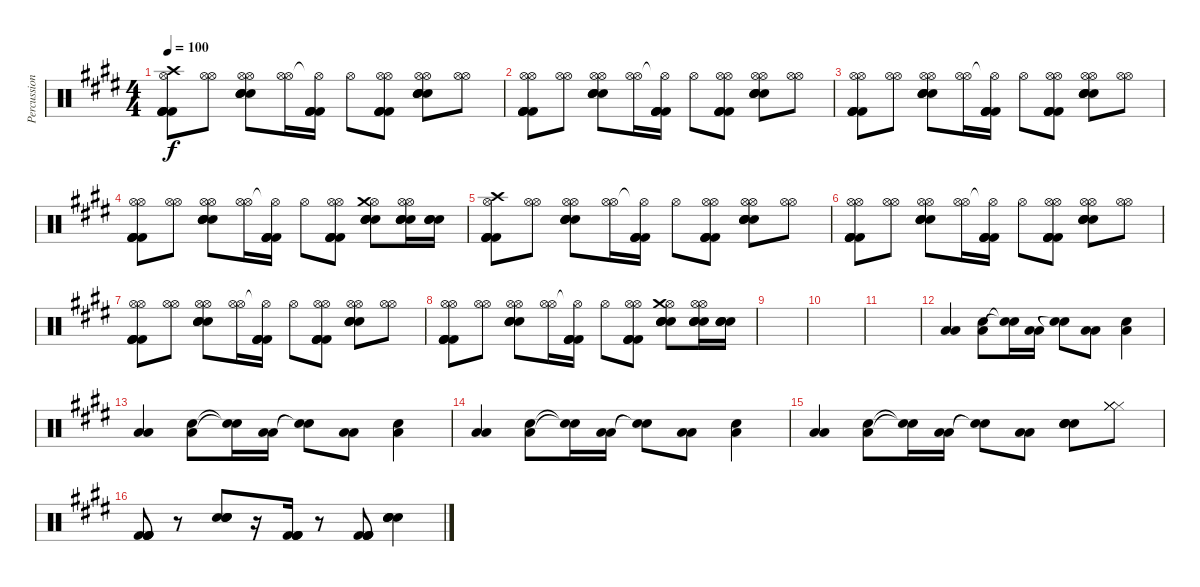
\track ("Percussion" "Percussion") {instrument percussion}
\staff {score}
\articulation defaults
\ts (4 4)
\tempo 100
\clef neutral
\ks e
("Hi-Hat (open)" "Kick (hit) 2" "Kick (hit) 2" "Kick (hit) 2" "Kick (hit) 2" "Crash high (hit)").8{dy f} ("Hi-Hat (open)" "Hi-Hat (open)").8 ("Hi-Hat (open)" "Electric Snare (hit)" "Electric Snare (hit)" "Electric Snare (hit)" "Electric Snare (hit)" "Hi-Hat (open)").8 ("Hi-Hat (open)" "Hi-Hat (open)").16 ("Hi-Hat (open)"{t} "Kick (hit) 2" "Kick (hit) 2" "Kick (hit) 2" "Kick (hit) 2").16 "Hi-Hat (open)".8 ("Hi-Hat (open)" "Kick (hit) 2" "Kick (hit) 2" "Kick (hit) 2" "Kick (hit) 2" "Hi-Hat (open)").8 ("Hi-Hat (open)" "Electric Snare (hit)" "Electric Snare (hit)" "Electric Snare (hit)" "Electric Snare (hit)" "Hi-Hat (open)").8 ("Hi-Hat (open)" "Hi-Hat (open)").8 |
("Hi-Hat (open)" "Kick (hit) 2" "Kick (hit) 2" "Kick (hit) 2" "Kick (hit) 2" "Hi-Hat (open)").8 ("Hi-Hat (open)" "Hi-Hat (open)").8 ("Hi-Hat (open)" "Electric Snare (hit)" "Electric Snare (hit)" "Electric Snare (hit)" "Electric Snare (hit)" "Hi-Hat (open)").8 ("Hi-Hat (open)" "Hi-Hat (open)").16 ("Hi-Hat (open)"{t} "Kick (hit) 2" "Kick (hit) 2" "Kick (hit) 2" "Kick (hit) 2").16 "Hi-Hat (open)".8 ("Hi-Hat (open)" "Kick (hit) 2" "Kick (hit) 2" "Kick (hit) 2" "Kick (hit) 2" "Hi-Hat (open)").8 ("Hi-Hat (open)" "Electric Snare (hit)" "Electric Snare (hit)" "Electric Snare (hit)" "Electric Snare (hit)" "Hi-Hat (open)").8 ("Hi-Hat (open)" "Hi-Hat (open)").8 |
("Hi-Hat (open)" "Kick (hit) 2" "Kick (hit) 2" "Kick (hit) 2" "Kick (hit) 2" "Hi-Hat (open)").8 ("Hi-Hat (open)" "Hi-Hat (open)").8 ("Hi-Hat (open)" "Electric Snare (hit)" "Electric Snare (hit)" "Electric Snare (hit)" "Electric Snare (hit)" "Hi-Hat (open)").8 ("Hi-Hat (open)" "Hi-Hat (open)").16 ("Hi-Hat (open)"{t} "Kick (hit) 2" "Kick (hit) 2" "Kick (hit) 2" "Kick (hit) 2").16 "Hi-Hat (open)".8 ("Hi-Hat (open)" "Kick (hit) 2" "Kick (hit) 2" "Kick (hit) 2" "Kick (hit) 2" "Hi-Hat (open)").8 ("Hi-Hat (open)" "Electric Snare (hit)" "Electric Snare (hit)" "Electric Snare (hit)" "Electric Snare (hit)" "Hi-Hat (open)").8 ("Hi-Hat (open)" "Hi-Hat (open)").8 |
("Hi-Hat (open)" "Kick (hit) 2" "Kick (hit) 2" "Kick (hit) 2" "Kick (hit) 2" "Hi-Hat (open)").8 ("Hi-Hat (open)" "Hi-Hat (open)").8 ("Hi-Hat (open)" "Electric Snare (hit)" "Electric Snare (hit)" "Electric Snare (hit)" "Electric Snare (hit)" "Hi-Hat (open)").8 ("Hi-Hat (open)" "Hi-Hat (open)").16 ("Hi-Hat (open)"{t} "Kick (hit) 2" "Kick (hit) 2" "Kick (hit) 2" "Kick (hit) 2").16 "Hi-Hat (open)".8 ("Hi-Hat (open)" "Kick (hit) 2" "Kick (hit) 2" "Kick (hit) 2" "Kick (hit) 2" "Hi-Hat (open)").8 ("Hi-Hat (open)" "Electric Snare (hit)" "Electric Snare (hit)" "Electric Snare (hit)" "Electric Snare (hit)" "Crash medium (hit)").8 ("Hi-Hat (open)" "Electric Snare (hit)" "Electric Snare (hit)" "Electric Snare (hit)" "Electric Snare (hit)" "Hi-Hat (open)").16 ("Electric Snare (hit)" "Electric Snare (hit)" "Electric Snare (hit)" "Electric Snare (hit)").16 |
("Hi-Hat (open)" "Kick (hit) 2" "Kick (hit) 2" "Kick (hit) 2" "Kick (hit) 2" "Crash high (hit)").8 ("Hi-Hat (open)" "Hi-Hat (open)").8 ("Hi-Hat (open)" "Electric Snare (hit)" "Electric Snare (hit)" "Electric Snare (hit)" "Electric Snare (hit)" "Hi-Hat (open)").8 ("Hi-Hat (open)" "Hi-Hat (open)").16 ("Hi-Hat (open)"{t} "Kick (hit) 2" "Kick (hit) 2" "Kick (hit) 2" "Kick (hit) 2").16 "Hi-Hat (open)".8 ("Hi-Hat (open)" "Kick (hit) 2" "Kick (hit) 2" "Kick (hit) 2" "Kick (hit) 2" "Hi-Hat (open)").8 ("Hi-Hat (open)" "Electric Snare (hit)" "Electric Snare (hit)" "Electric Snare (hit)" "Electric Snare (hit)" "Hi-Hat (open)").8 ("Hi-Hat (open)" "Hi-Hat (open)").8 |
("Hi-Hat (open)" "Kick (hit) 2" "Kick (hit) 2" "Kick (hit) 2" "Kick (hit) 2" "Hi-Hat (open)").8 ("Hi-Hat (open)" "Hi-Hat (open)").8 ("Hi-Hat (open)" "Electric Snare (hit)" "Electric Snare (hit)" "Electric Snare (hit)" "Electric Snare (hit)" "Hi-Hat (open)").8 ("Hi-Hat (open)" "Hi-Hat (open)").16 ("Hi-Hat (open)"{t} "Kick (hit) 2" "Kick (hit) 2" "Kick (hit) 2" "Kick (hit) 2").16 "Hi-Hat (open)".8 ("Hi-Hat (open)" "Kick (hit) 2" "Kick (hit) 2" "Kick (hit) 2" "Kick (hit) 2" "Hi-Hat (open)").8 ("Hi-Hat (open)" "Electric Snare (hit)" "Electric Snare (hit)" "Electric Snare (hit)" "Electric Snare (hit)" "Hi-Hat (open)").8 ("Hi-Hat (open)" "Hi-Hat (open)").8 |
("Hi-Hat (open)" "Kick (hit) 2" "Kick (hit) 2" "Kick (hit) 2" "Kick (hit) 2" "Hi-Hat (open)").8 ("Hi-Hat (open)" "Hi-Hat (open)").8 ("Hi-Hat (open)" "Electric Snare (hit)" "Electric Snare (hit)" "Electric Snare (hit)" "Electric Snare (hit)" "Hi-Hat (open)").8 ("Hi-Hat (open)" "Hi-Hat (open)").16 ("Hi-Hat (open)"{t} "Kick (hit) 2" "Kick (hit) 2" "Kick (hit) 2" "Kick (hit) 2").16 "Hi-Hat (open)".8 ("Hi-Hat (open)" "Kick (hit) 2" "Kick (hit) 2" "Kick (hit) 2" "Kick (hit) 2" "Hi-Hat (open)").8 ("Hi-Hat (open)" "Electric Snare (hit)" "Electric Snare (hit)" "Electric Snare (hit)" "Electric Snare (hit)" "Hi-Hat (open)").8 ("Hi-Hat (open)" "Hi-Hat (open)").8 |
("Hi-Hat (open)" "Kick (hit) 2" "Kick (hit) 2" "Kick (hit) 2" "Kick (hit) 2" "Hi-Hat (open)").8 ("Hi-Hat (open)" "Hi-Hat (open)").8 ("Hi-Hat (open)" "Electric Snare (hit)" "Electric Snare (hit)" "Electric Snare (hit)" "Electric Snare (hit)" "Hi-Hat (open)").8 ("Hi-Hat (open)" "Hi-Hat (open)").16 ("Hi-Hat (open)"{t} "Kick (hit) 2" "Kick (hit) 2" "Kick (hit) 2" "Kick (hit) 2").16 "Hi-Hat (open)".8 ("Hi-Hat (open)" "Kick (hit) 2" "Kick (hit) 2" "Kick (hit) 2" "Kick (hit) 2" "Hi-Hat (open)").8 ("Hi-Hat (open)" "Electric Snare (hit)" "Electric Snare (hit)" "Electric Snare (hit)" "Electric Snare (hit)" "Crash medium (hit)").8 ("Hi-Hat (open)" "Electric Snare (hit)" "Electric Snare (hit)" "Electric Snare (hit)" "Electric Snare (hit)" "Hi-Hat (open)").16 ("Electric Snare (hit)" "Electric Snare (hit)" "Electric Snare (hit)" "Electric Snare (hit)").16 |
|
|
|
("Low Floor Tom (hit)" "Low Floor Tom (hit)").4 ("Low Tom (hit)" "Electric Snare (hit)").8 ("Snare (hit)"{t} "Snare (hit)"{t}).16 ("Low Floor Tom (hit)" "Low Floor Tom (hit)").16 ("Snare (hit)"{t} "Snare (hit)"{t}).8 ("Low Floor Tom (hit)" "Low Floor Tom (hit)").8 ("Low Tom (hit)" "Electric Snare (hit)").4 |
("Low Floor Tom (hit)" "Low Floor Tom (hit)").4 ("Low Tom (hit)" "Electric Snare (hit)").8 ("Snare (hit)"{t} "Snare (hit)"{t}).16 ("Low Floor Tom (hit)" "Low Floor Tom (hit)").16 ("Snare (hit)"{t} "Snare (hit)"{t}).8 ("Low Floor Tom (hit)" "Low Floor Tom (hit)").8 ("Low Tom (hit)" "Electric Snare (hit)").4 |
("Low Floor Tom (hit)" "Low Floor Tom (hit)").4 ("Low Tom (hit)" "Electric Snare (hit)").8 ("Snare (hit)"{t} "Snare (hit)"{t}).16 ("Low Floor Tom (hit)" "Low Floor Tom (hit)").16 ("Snare (hit)"{t} "Snare (hit)"{t}).8 ("Low Floor Tom (hit)" "Low Floor Tom (hit)").8 ("Low Tom (hit)" "Electric Snare (hit)").4 |
("Low Floor Tom (hit)" "Low Floor Tom (hit)").4 ("Low Tom (hit)" "Electric Snare (hit)").8 ("Snare (hit)"{t} "Snare (hit)"{t}).16 ("Low Floor Tom (hit)" "Low Floor Tom (hit)").16 ("Snare (hit)"{t} "Snare (hit)"{t}).8 ("Low Floor Tom (hit)" "Low Floor Tom (hit)").8 ("Electric Snare (hit)" "Electric Snare (hit)" "Electric Snare (hit)" "Electric Snare (hit)").8 ("Hi-Hat (closed)" "Hi-Hat (closed)" "Hi-Hat (closed)" "Hi-Hat (closed)").8 |
("Kick (hit) 2" "Kick (hit) 2" "Kick (hit) 2" "Kick (hit) 2").8 r.8 ("Electric Snare (hit)" "Electric Snare (hit)" "Electric Snare (hit)" "Electric Snare (hit)").8 r.16 ("Kick (hit) 2" "Kick (hit) 2" "Kick (hit) 2" "Kick (hit) 2").16 r.8 ("Kick (hit) 2" "Kick (hit) 2" "Kick (hit) 2" "Kick (hit) 2").8 ("Electric Snare (hit)" "Electric Snare (hit)" "Electric Snare (hit)" "Electric Snare (hit)").4
